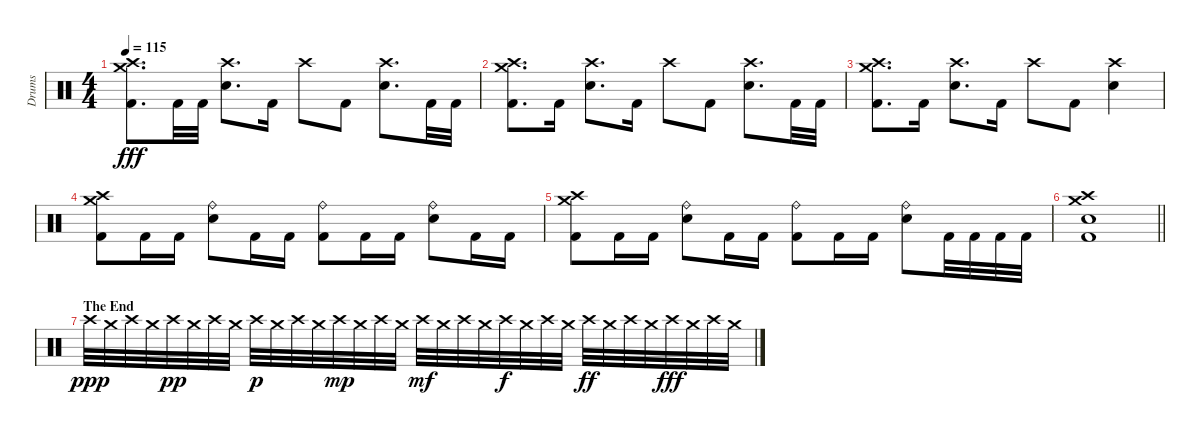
\track ("Drums " "Drums ") {instrument percussion}
\staff {score}
\articulation defaults
\ts (4 4)
\tempo 115
\clef neutral
\ks c
("Crash medium (hit)" "Crash high (hit)" "Kick (hit) 2").8{d dy fff} "Kick (hit) 2".32 "Kick (hit) 2".32 ("Crash high (hit)" "Electric Snare (hit)").8{d} "Kick (hit) 2".16 "Crash high (hit)".8 "Kick (hit) 2".8 ("Crash high (hit)" "Electric Snare (hit)").8{d} "Kick (hit) 2".32 "Kick (hit) 2".32 |
("Crash medium (hit)" "Crash high (hit)" "Kick (hit) 2").8{d} "Kick (hit) 2".16 ("Crash high (hit)" "Electric Snare (hit)").8{d} "Kick (hit) 2".16 "Crash high (hit)".8 "Kick (hit) 2".8 ("Crash high (hit)" "Electric Snare (hit)").8{d} "Kick (hit) 2".32 "Kick (hit) 2".32 |
("Crash medium (hit)" "Crash high (hit)" "Kick (hit) 2").8{d} "Kick (hit) 2".16 ("Crash high (hit)" "Electric Snare (hit)").8{d} "Kick (hit) 2".16 "Crash high (hit)".8 "Kick (hit) 2".8 ("Crash high (hit)" "Electric Snare (hit)").4 |
("Crash medium (hit)" "Crash high (hit)" "Kick (hit) 2").8 "Kick (hit) 2".16 "Kick (hit) 2".16 ("Ride (bell)" "Electric Snare (hit)").8 "Kick (hit) 2".16 "Kick (hit) 2".16 ("Ride (bell)" "Kick (hit) 2").8 "Kick (hit) 2".16 "Kick (hit) 2".16 ("Ride (bell)" "Electric Snare (hit)").8 "Kick (hit) 2".16 "Kick (hit) 2".16 |
("Crash medium (hit)" "Crash high (hit)" "Kick (hit) 2").8 "Kick (hit) 2".16 "Kick (hit) 2".16 ("Ride (bell)" "Electric Snare (hit)").8 "Kick (hit) 2".16 "Kick (hit) 2".16 ("Ride (bell)" "Kick (hit) 2").8 "Kick (hit) 2".16 "Kick (hit) 2".16 ("Ride (bell)" "Electric Snare (hit)").8 "Kick (hit) 2".32 "Kick (hit) 2".32 "Kick (hit) 2".32 "Kick (hit) 2".32 |
\barLineRight lightlight
("Crash medium (hit)" "Crash high (hit)" "Electric Snare (hit)" "Kick (hit) 2").1 |
\section ("" "The End")
"Crash high (hit)".32{dy ppp} "Crash medium (hit)".32 "Crash high (hit)".32 "Crash medium (hit)".32 "Crash high (hit)".32{dy pp} "Crash medium (hit)".32 "Crash high (hit)".32 "Crash medium (hit)".32 "Crash high (hit)".32{dy p} "Crash medium (hit)".32 "Crash high (hit)".32 "Crash medium (hit)".32 "Crash high (hit)".32{dy mp} "Crash medium (hit)".32 "Crash high (hit)".32 "Crash medium (hit)".32 "Crash high (hit)".32{dy mf} "Crash medium (hit)".32 "Crash high (hit)".32 "Crash medium (hit)".32 "Crash high (hit)".32{dy f} "Crash medium (hit)".32 "Crash high (hit)".32 "Crash medium (hit)".32 "Crash high (hit)".32{dy ff} "Crash medium (hit)".32 "Crash high (hit)".32 "Crash medium (hit)".32 "Crash high (hit)".32{dy fff} "Crash medium (hit)".32 "Crash high (hit)".32 "Crash medium (hit)".32
